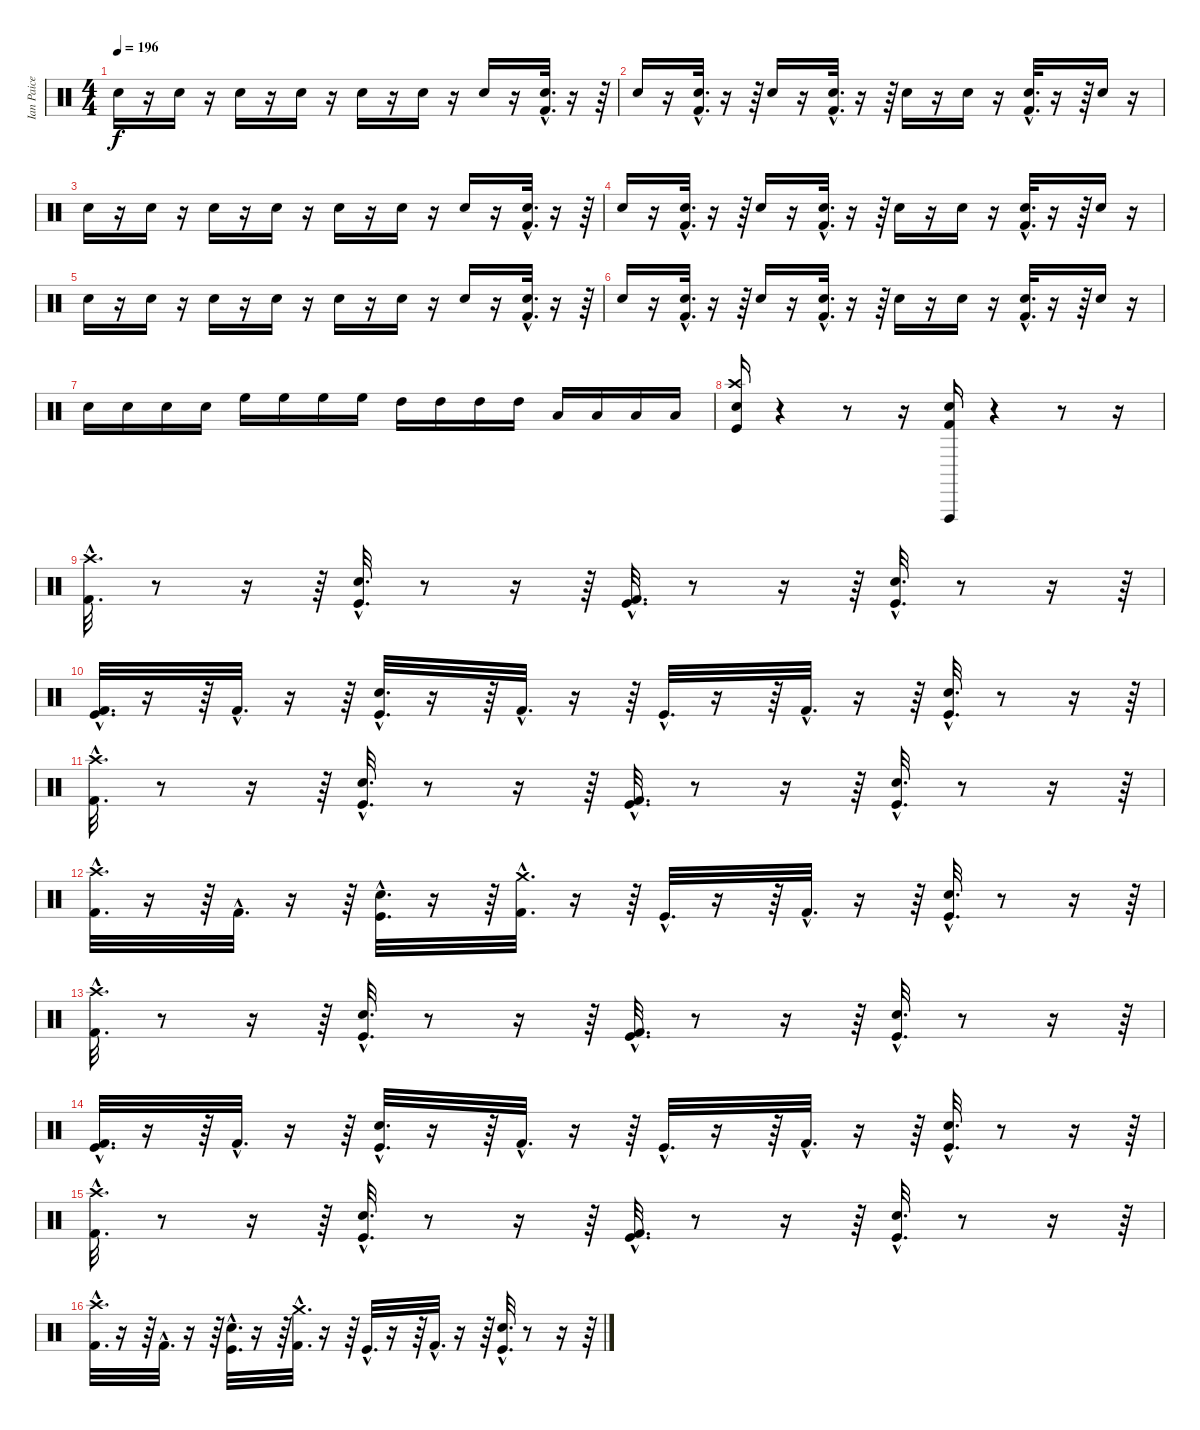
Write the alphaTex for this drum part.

\track ("Ian Paice" "Ian Paice") {instrument percussion}
\staff {score}
\articulation defaults
\ts (4 4)
\tempo 196
\clef neutral
\ks c "Snare (hit) 2".16{dy f}
r.16 "Snare (hit) 2".16 r.16 "Snare (hit) 2".16 r.16 "Snare (hit) 2".16 r.16 "Snare (hit) 2".16 r.16 "Snare (hit) 2".16 r.16 "Snare (hit) 2".16 r.16 ("Snare (hit) 2"{hac} "Kick (hit) 2"{hac}).32{d} r.16 r.64 |
"Snare (hit) 2".16 r.16 ("Snare (hit) 2"{hac} "Kick (hit) 2"{hac}).32{d} r.16 r.64 "Snare (hit) 2".16 r.16 ("Snare (hit) 2"{hac} "Kick (hit) 2"{hac}).32{d} r.16 r.64 "Snare (hit) 2".16 r.16 "Snare (hit) 2".16 r.16 ("Snare (hit) 2"{hac} "Kick (hit) 2"{hac}).32{d} r.16 r.64 "Snare (hit) 2".16 r.16 |
"Snare (hit) 2".16 r.16 "Snare (hit) 2".16 r.16 "Snare (hit) 2".16 r.16 "Snare (hit) 2".16 r.16 "Snare (hit) 2".16 r.16 "Snare (hit) 2".16 r.16 "Snare (hit) 2".16 r.16 ("Snare (hit) 2"{hac} "Kick (hit) 2"{hac}).32{d} r.16 r.64 |
"Snare (hit) 2".16 r.16 ("Snare (hit) 2"{hac} "Kick (hit) 2"{hac}).32{d} r.16 r.64 "Snare (hit) 2".16 r.16 ("Snare (hit) 2"{hac} "Kick (hit) 2"{hac}).32{d} r.16 r.64 "Snare (hit) 2".16 r.16 "Snare (hit) 2".16 r.16 ("Snare (hit) 2"{hac} "Kick (hit) 2"{hac}).32{d} r.16 r.64 "Snare (hit) 2".16 r.16 |
"Snare (hit) 2".16 r.16 "Snare (hit) 2".16 r.16 "Snare (hit) 2".16 r.16 "Snare (hit) 2".16 r.16 "Snare (hit) 2".16 r.16 "Snare (hit) 2".16 r.16 "Snare (hit) 2".16 r.16 ("Snare (hit) 2"{hac} "Kick (hit) 2"{hac}).32{d} r.16 r.64 |
"Snare (hit) 2".16 r.16 ("Snare (hit) 2"{hac} "Kick (hit) 2"{hac}).32{d} r.16 r.64 "Snare (hit) 2".16 r.16 ("Snare (hit) 2"{hac} "Kick (hit) 2"{hac}).32{d} r.16 r.64 "Snare (hit) 2".16 r.16 "Snare (hit) 2".16 r.16 ("Snare (hit) 2"{hac} "Kick (hit) 2"{hac}).32{d} r.16 r.64 "Snare (hit) 2".16 r.16 |
"Snare (hit) 2".16 "Snare (hit) 2".16 "Snare (hit) 2".16 "Snare (hit) 2".16 "High Floor Tom (hit)".16 "High Floor Tom (hit)".16 "High Floor Tom (hit)".16 "High Floor Tom (hit)".16 "High Tom (hit)".16 "High Tom (hit)".16 "High Tom (hit)".16 "High Tom (hit)".16 "Low Tom (hit)".16 "Low Tom (hit)".16 "Low Tom (hit)".16 "Low Tom (hit)".16 |
("Crash high (hit)" "Kick (hit)" "Snare (hit) 2").16 r.4 r.8 r.16 ("Vibraslap (hit)" "Kick (hit) 2" "Snare (hit) 2").16 r.4 r.8 r.16 |
("Kick (hit) 2"{hac} "Crash high (hit)"{hac}).32{d} r.8 r.16 r.64 ("Kick (hit)"{hac} "Snare (hit) 2"{hac}).32{d} r.8 r.16 r.64 ("Kick (hit)"{hac} "Kick (hit) 2"{hac}).32{d} r.8 r.16 r.64 ("Kick (hit)"{hac} "Snare (hit) 2"{hac}).32{d} r.8 r.16 r.64 |
("Kick (hit)"{hac} "Kick (hit) 2"{hac}).32{d} r.16 r.64 "Kick (hit) 2"{hac}.32{d} r.16 r.64 ("Snare (hit) 2"{hac} "Kick (hit)"{hac}).32{d} r.16 r.64 "Kick (hit) 2"{hac}.32{d} r.16 r.64 "Kick (hit)"{hac}.32{d} r.16 r.64 "Kick (hit) 2"{hac}.32{d} r.16 r.64 ("Snare (hit) 2"{hac} "Kick (hit)"{hac}).32{d} r.8 r.16 r.64 |
("Kick (hit) 2"{hac} "Crash high (hit)"{hac}).32{d} r.8 r.16 r.64 ("Kick (hit)"{hac} "Snare (hit) 2"{hac}).32{d} r.8 r.16 r.64 ("Kick (hit)"{hac} "Kick (hit) 2"{hac}).32{d} r.8 r.16 r.64 ("Kick (hit)"{hac} "Snare (hit) 2"{hac}).32{d} r.8 r.16 r.64 |
("Crash high (hit)"{hac} "Kick (hit) 2"{hac}).32{d} r.16 r.64 "Kick (hit) 2"{hac}.32{d} r.16 r.64 ("Kick (hit)"{hac} "Snare (hit) 2"{hac}).32{d} r.16 r.64 ("Crash medium (hit)"{hac} "Kick (hit) 2"{hac}).32{d} r.16 r.64 "Kick (hit)"{hac}.32{d} r.16 r.64 "Kick (hit) 2"{hac}.32{d} r.16 r.64 ("Kick (hit)"{hac} "Snare (hit) 2"{hac}).32{d} r.8 r.16 r.64 |
("Kick (hit) 2"{hac} "Crash high (hit)"{hac}).32{d} r.8 r.16 r.64 ("Kick (hit)"{hac} "Snare (hit) 2"{hac}).32{d} r.8 r.16 r.64 ("Kick (hit)"{hac} "Kick (hit) 2"{hac}).32{d} r.8 r.16 r.64 ("Kick (hit)"{hac} "Snare (hit) 2"{hac}).32{d} r.8 r.16 r.64 |
("Kick (hit)"{hac} "Kick (hit) 2"{hac}).32{d} r.16 r.64 "Kick (hit) 2"{hac}.32{d} r.16 r.64 ("Snare (hit) 2"{hac} "Kick (hit)"{hac}).32{d} r.16 r.64 "Kick (hit) 2"{hac}.32{d} r.16 r.64 "Kick (hit)"{hac}.32{d} r.16 r.64 "Kick (hit) 2"{hac}.32{d} r.16 r.64 ("Snare (hit) 2"{hac} "Kick (hit)"{hac}).32{d} r.8 r.16 r.64 |
("Kick (hit) 2"{hac} "Crash high (hit)"{hac}).32{d} r.8 r.16 r.64 ("Kick (hit)"{hac} "Snare (hit) 2"{hac}).32{d} r.8 r.16 r.64 ("Kick (hit)"{hac} "Kick (hit) 2"{hac}).32{d} r.8 r.16 r.64 ("Kick (hit)"{hac} "Snare (hit) 2"{hac}).32{d} r.8 r.16 r.64 |
("Crash high (hit)"{hac} "Kick (hit) 2"{hac}).32{d} r.16 r.64 "Kick (hit) 2"{hac}.32{d} r.16 r.64 ("Kick (hit)"{hac} "Snare (hit) 2"{hac}).32{d} r.16 r.64 ("Crash medium (hit)"{hac} "Kick (hit) 2"{hac}).32{d} r.16 r.64 "Kick (hit)"{hac}.32{d} r.16 r.64 "Kick (hit) 2"{hac}.32{d} r.16 r.64 ("Kick (hit)"{hac} "Snare (hit) 2"{hac}).32{d} r.8 r.16 r.64
